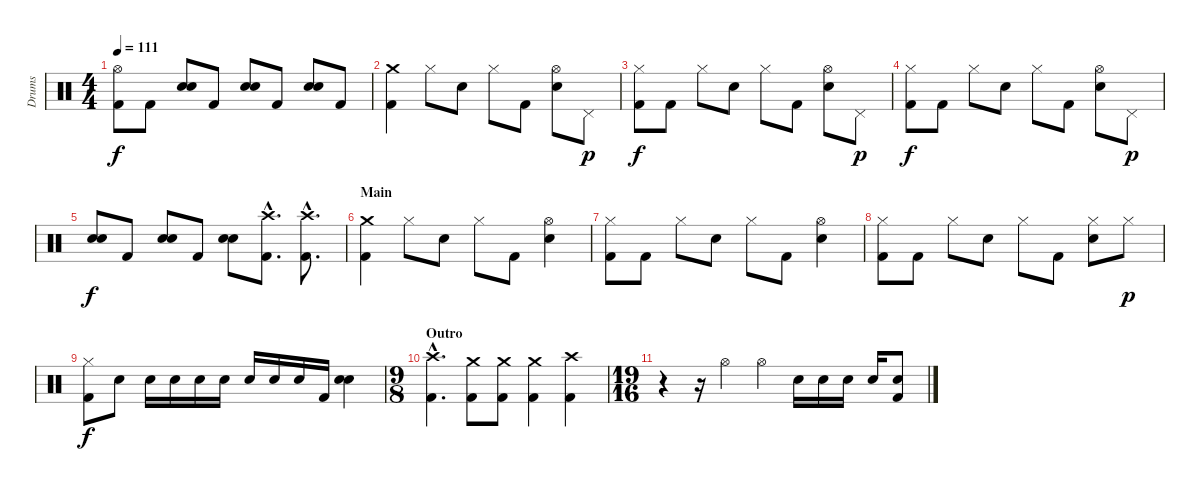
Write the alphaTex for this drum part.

\track ("Drums" "Drums") {instrument percussion}
\staff {score}
\articulation defaults
\ts (4 4)
\tempo 111
\clef neutral
\ks c
("Hi-Hat (open)" "Kick (hit) 2").8{dy f} "Kick (hit) 2".8 ("Electric Snare (hit)" "Electric Snare (hit)").8{bd 120} "Kick (hit) 2".8 ("Electric Snare (hit)" "Electric Snare (hit)").8{bd 120} "Kick (hit) 2".8 ("Electric Snare (hit)" "Electric Snare (hit)").8{bd 120} "Kick (hit) 2".8 |
("Crash medium (hit)" "Kick (hit) 2").4 "Hi-Hat (closed)".8 "Electric Snare (hit)".8 "Hi-Hat (closed)".8 "Kick (hit) 2".8 ("Hi-Hat (open)" "Electric Snare (hit)").8 "Pedal Hi-Hat (hit)".8{dy p} |
("Hi-Hat (closed)" "Kick (hit) 2").8{dy f} "Kick (hit) 2".8 "Hi-Hat (closed)".8 "Electric Snare (hit)".8 "Hi-Hat (closed)".8 "Kick (hit) 2".8 ("Hi-Hat (open)" "Electric Snare (hit)").8 "Pedal Hi-Hat (hit)".8{dy p} |
("Hi-Hat (closed)" "Kick (hit) 2").8{dy f} "Kick (hit) 2".8 "Hi-Hat (closed)".8 "Electric Snare (hit)".8 "Hi-Hat (closed)".8 "Kick (hit) 2".8 ("Hi-Hat (open)" "Electric Snare (hit)").8 "Pedal Hi-Hat (hit)".8{dy p} |
("Electric Snare (hit)" "Electric Snare (hit)").8{bd 120 dy f} "Kick (hit) 2".8 ("Electric Snare (hit)" "Electric Snare (hit)").8{bd 120} "Kick (hit) 2".8 ("Electric Snare (hit)" "Electric Snare (hit)").8{bd 120} ("Crash high (hit)"{hac} "Kick (hit) 2"{hac}).8{d} ("Crash high (hit)"{hac} "Kick (hit) 2"{hac}).8{d} |
\section ("" "Main")
("Crash medium (hit)" "Kick (hit) 2").4 "Hi-Hat (closed)".8 "Electric Snare (hit)".8 "Hi-Hat (closed)".8 "Kick (hit) 2".8 ("Hi-Hat (open)" "Electric Snare (hit)").4 |
("Hi-Hat (closed)" "Kick (hit) 2").8 "Kick (hit) 2".8 "Hi-Hat (closed)".8 "Electric Snare (hit)".8 "Hi-Hat (closed)".8 "Kick (hit) 2".8 ("Hi-Hat (open)" "Electric Snare (hit)").4 |
("Hi-Hat (closed)" "Kick (hit) 2").8 "Kick (hit) 2".8 "Hi-Hat (closed)".8 "Electric Snare (hit)".8 "Hi-Hat (closed)".8 "Kick (hit) 2".8 ("Hi-Hat (closed)" "Electric Snare (hit)").8 "Hi-Hat (closed)".8{dy p} |
("Hi-Hat (closed)" "Kick (hit) 2").8{dy f} "Electric Snare (hit)".8 "Electric Snare (hit)".16 "Electric Snare (hit)".16 "Electric Snare (hit)".16 "Electric Snare (hit)".16 "Electric Snare (hit)".16 "Electric Snare (hit)".16 "Electric Snare (hit)".16 "Kick (hit) 2".16 ("Electric Snare (hit)" "Electric Snare (hit)").4{bd 120} |
\ts (9 8)
\section ("" "Outro")
("Crash high (hit)"{hac} "Kick (hit) 2"{hac}).4{d} ("Crash medium (hit)" "Kick (hit) 2").8 ("Crash medium (hit)" "Kick (hit) 2").8 ("Crash medium (hit)" "Kick (hit) 2").4 ("Crash high (hit)" "Kick (hit) 2").4 |
\ts (19 16)
r.4 r.16 "Hi-Hat (open)".4 "Hi-Hat (open)".4 "Electric Snare (hit)".16 "Electric Snare (hit)".16 "Electric Snare (hit)".16 "Electric Snare (hit)".16 ("Electric Snare (hit)" "Kick (hit) 2").8
